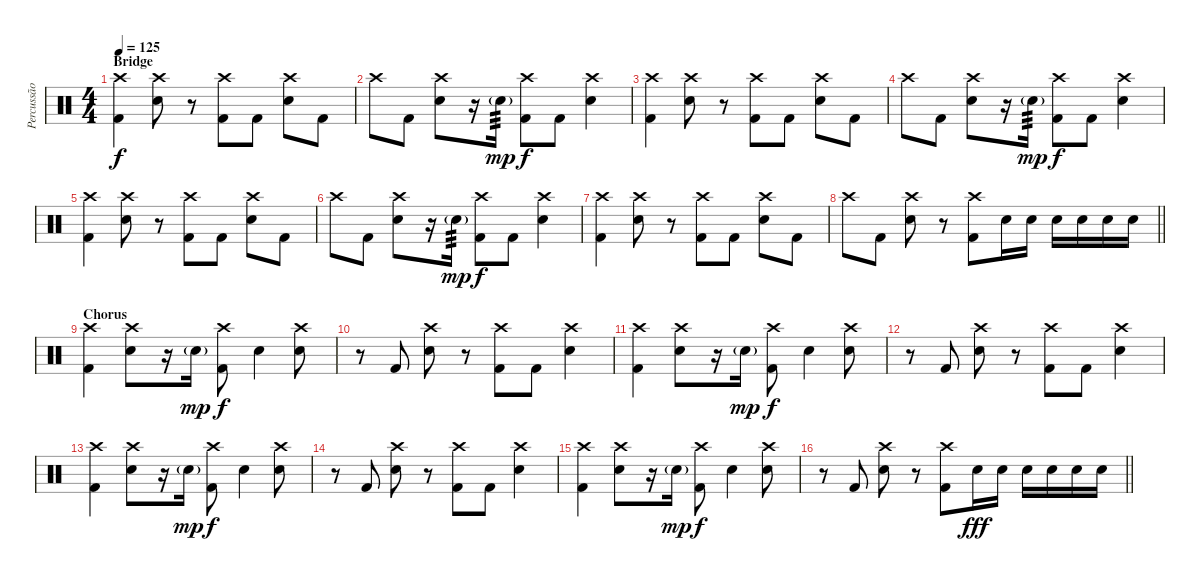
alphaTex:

\track ("Percussão" "Percussão") {instrument percussion}
\staff {score}
\articulation defaults
\ts (4 4)
\section ("" "Bridge")
\tempo 125
\clef neutral
\ks c
("Crash high (hit)" "Kick (hit) 2").4{dy f} ("Crash high (hit)" "Electric Snare (hit)").8 r.8 ("Crash high (hit)" "Kick (hit) 2").8 "Kick (hit) 2".8 ("Crash high (hit)" "Electric Snare (hit)").8 "Kick (hit) 2".8 |
"Crash high (hit)".8 "Kick (hit) 2".8 ("Crash high (hit)" "Electric Snare (hit)").8 r.16 "Electric Snare (hit)"{g}.16{tp 3 dy mp} ("Crash high (hit)" "Kick (hit) 2").8{dy f} "Kick (hit) 2".8 ("Crash high (hit)" "Electric Snare (hit)").4 |
("Crash high (hit)" "Kick (hit) 2").4 ("Crash high (hit)" "Electric Snare (hit)").8 r.8 ("Crash high (hit)" "Kick (hit) 2").8 "Kick (hit) 2".8 ("Crash high (hit)" "Electric Snare (hit)").8 "Kick (hit) 2".8 |
"Crash high (hit)".8 "Kick (hit) 2".8 ("Crash high (hit)" "Electric Snare (hit)").8 r.16 "Electric Snare (hit)"{g}.16{tp 3 dy mp} ("Crash high (hit)" "Kick (hit) 2").8{dy f} "Kick (hit) 2".8 ("Crash high (hit)" "Electric Snare (hit)").4 |
("Crash high (hit)" "Kick (hit) 2").4 ("Crash high (hit)" "Electric Snare (hit)").8 r.8 ("Crash high (hit)" "Kick (hit) 2").8 "Kick (hit) 2".8 ("Crash high (hit)" "Electric Snare (hit)").8 "Kick (hit) 2".8 |
"Crash high (hit)".8 "Kick (hit) 2".8 ("Crash high (hit)" "Electric Snare (hit)").8 r.16 "Electric Snare (hit)"{g}.16{tp 3 dy mp} ("Crash high (hit)" "Kick (hit) 2").8{dy f} "Kick (hit) 2".8 ("Crash high (hit)" "Electric Snare (hit)").4 |
("Crash high (hit)" "Kick (hit) 2").4 ("Crash high (hit)" "Electric Snare (hit)").8 r.8 ("Crash high (hit)" "Kick (hit) 2").8 "Kick (hit) 2".8 ("Crash high (hit)" "Electric Snare (hit)").8 "Kick (hit) 2".8 |
\barLineRight lightlight "Crash high (hit)".8 "Kick (hit) 2".8
("Crash high (hit)" "Electric Snare (hit)").8 r.8 ("Crash high (hit)" "Kick (hit) 2").8 "Electric Snare (hit)".16 "Electric Snare (hit)".16 "Electric Snare (hit)".16 "Electric Snare (hit)".16 "Electric Snare (hit)".16 "Electric Snare (hit)".16 |
\section ("" "Chorus")
("Crash high (hit)" "Kick (hit) 2").4 ("Crash high (hit)" "Electric Snare (hit)").8 r.16 "Electric Snare (hit)"{g}.16{dy mp} ("Crash high (hit)" "Kick (hit) 2").8{dy f} "Electric Snare (hit)".4 ("Crash high (hit)" "Electric Snare (hit)").8 |
r.8 "Kick (hit) 2".8 ("Crash high (hit)" "Electric Snare (hit)").8 r.8 ("Crash high (hit)" "Kick (hit) 2").8 "Kick (hit) 2".8 ("Crash high (hit)" "Electric Snare (hit)").4 |
("Crash high (hit)" "Kick (hit) 2").4 ("Crash high (hit)" "Electric Snare (hit)").8 r.16 "Electric Snare (hit)"{g}.16{dy mp} ("Crash high (hit)" "Kick (hit) 2").8{dy f} "Electric Snare (hit)".4 ("Crash high (hit)" "Electric Snare (hit)").8 |
r.8 "Kick (hit) 2".8 ("Crash high (hit)" "Electric Snare (hit)").8 r.8 ("Crash high (hit)" "Kick (hit) 2").8 "Kick (hit) 2".8 ("Crash high (hit)" "Electric Snare (hit)").4 |
("Crash high (hit)" "Kick (hit) 2").4 ("Crash high (hit)" "Electric Snare (hit)").8 r.16 "Electric Snare (hit)"{g}.16{dy mp} ("Crash high (hit)" "Kick (hit) 2").8{dy f} "Electric Snare (hit)".4 ("Crash high (hit)" "Electric Snare (hit)").8 |
r.8 "Kick (hit) 2".8 ("Crash high (hit)" "Electric Snare (hit)").8 r.8 ("Crash high (hit)" "Kick (hit) 2").8 "Kick (hit) 2".8 ("Crash high (hit)" "Electric Snare (hit)").4 |
("Crash high (hit)" "Kick (hit) 2").4 ("Crash high (hit)" "Electric Snare (hit)").8 r.16 "Electric Snare (hit)"{g}.16{dy mp} ("Crash high (hit)" "Kick (hit) 2").8{dy f} "Electric Snare (hit)".4 ("Crash high (hit)" "Electric Snare (hit)").8 |
\barLineRight lightlight
r.8 "Kick (hit) 2".8 ("Crash high (hit)" "Electric Snare (hit)").8 r.8 ("Crash high (hit)" "Kick (hit) 2").8 "Electric Snare (hit)".16{dy fff} "Electric Snare (hit)".16 "Electric Snare (hit)".16 "Electric Snare (hit)".16 "Electric Snare (hit)".16 "Electric Snare (hit)".16
